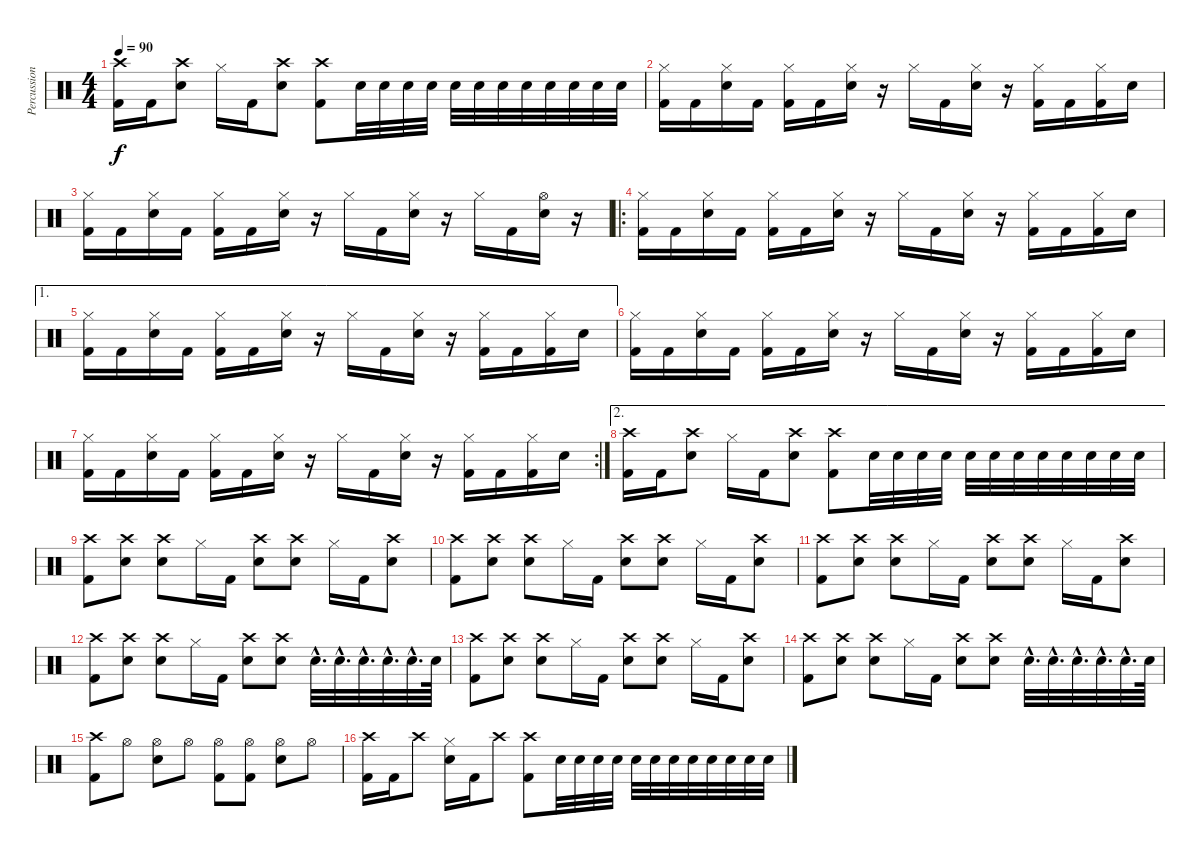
\track ("Percussion" "Percussion") {instrument percussion}
\staff {score}
\articulation defaults
\ts (4 4)
\tempo 90
\clef neutral
\ks c
("Crash high (hit)" "Kick (hit) 2").16{dy f} "Kick (hit) 2".16 ("Crash high (hit)" "Snare (hit) 2").8 "Hi-Hat (closed)".16 "Kick (hit) 2".16 ("Crash high (hit)" "Snare (hit) 2").8 ("Crash high (hit)" "Kick (hit) 2").8 "Snare (hit) 2".32 "Snare (hit) 2".32 "Snare (hit) 2".32 "Snare (hit) 2".32 "Snare (hit) 2".32 "Snare (hit) 2".32 "Snare (hit) 2".32 "Snare (hit) 2".32 "Snare (hit) 2".32 "Snare (hit) 2".32 "Snare (hit) 2".32 "Snare (hit) 2".32 |
("Hi-Hat (closed)" "Kick (hit) 2").16 "Kick (hit) 2".16 ("Hi-Hat (closed)" "Snare (hit) 2").16 "Kick (hit) 2".16 ("Hi-Hat (closed)" "Kick (hit) 2").16 "Kick (hit) 2".16 ("Hi-Hat (closed)" "Snare (hit) 2").16 r.16 "Hi-Hat (closed)".16 "Kick (hit) 2".16 ("Hi-Hat (closed)" "Snare (hit) 2").16 r.16 ("Hi-Hat (closed)" "Kick (hit) 2").16 "Kick (hit) 2".16 ("Hi-Hat (closed)" "Kick (hit) 2").16 "Snare (hit) 2".16 |
("Hi-Hat (closed)" "Kick (hit) 2").16 "Kick (hit) 2".16 ("Hi-Hat (closed)" "Snare (hit) 2").16 "Kick (hit) 2".16 ("Hi-Hat (closed)" "Kick (hit) 2").16 "Kick (hit) 2".16 ("Hi-Hat (closed)" "Snare (hit) 2").16 r.16 "Hi-Hat (closed)".16 "Kick (hit) 2".16 ("Hi-Hat (closed)" "Snare (hit) 2").16 r.16 "Hi-Hat (closed)".16 "Kick (hit) 2".16 ("Hi-Hat (open)" "Snare (hit) 2").16 r.16 |
\ro
("Hi-Hat (closed)" "Kick (hit) 2").16 "Kick (hit) 2".16 ("Hi-Hat (closed)" "Snare (hit) 2").16 "Kick (hit) 2".16 ("Hi-Hat (closed)" "Kick (hit) 2").16 "Kick (hit) 2".16 ("Hi-Hat (closed)" "Snare (hit) 2").16 r.16 "Hi-Hat (closed)".16 "Kick (hit) 2".16 ("Hi-Hat (closed)" "Snare (hit) 2").16 r.16 ("Hi-Hat (closed)" "Kick (hit) 2").16 "Kick (hit) 2".16 ("Hi-Hat (closed)" "Kick (hit) 2").16 "Snare (hit) 2".16 |
\ae 1
("Hi-Hat (closed)" "Kick (hit) 2").16 "Kick (hit) 2".16 ("Hi-Hat (closed)" "Snare (hit) 2").16 "Kick (hit) 2".16 ("Hi-Hat (closed)" "Kick (hit) 2").16 "Kick (hit) 2".16 ("Hi-Hat (closed)" "Snare (hit) 2").16 r.16 "Hi-Hat (closed)".16 "Kick (hit) 2".16 ("Hi-Hat (closed)" "Snare (hit) 2").16 r.16 ("Hi-Hat (closed)" "Kick (hit) 2").16 "Kick (hit) 2".16 ("Hi-Hat (closed)" "Kick (hit) 2").16 "Snare (hit) 2".16 |
("Hi-Hat (closed)" "Kick (hit) 2").16 "Kick (hit) 2".16 ("Hi-Hat (closed)" "Snare (hit) 2").16 "Kick (hit) 2".16 ("Hi-Hat (closed)" "Kick (hit) 2").16 "Kick (hit) 2".16 ("Hi-Hat (closed)" "Snare (hit) 2").16 r.16 "Hi-Hat (closed)".16 "Kick (hit) 2".16 ("Hi-Hat (closed)" "Snare (hit) 2").16 r.16 ("Hi-Hat (closed)" "Kick (hit) 2").16 "Kick (hit) 2".16 ("Hi-Hat (closed)" "Kick (hit) 2").16 "Snare (hit) 2".16 |
\rc 2
("Hi-Hat (closed)" "Kick (hit) 2").16 "Kick (hit) 2".16 ("Hi-Hat (closed)" "Snare (hit) 2").16 "Kick (hit) 2".16 ("Hi-Hat (closed)" "Kick (hit) 2").16 "Kick (hit) 2".16 ("Hi-Hat (closed)" "Snare (hit) 2").16 r.16 "Hi-Hat (closed)".16 "Kick (hit) 2".16 ("Hi-Hat (closed)" "Snare (hit) 2").16 r.16 ("Hi-Hat (closed)" "Kick (hit) 2").16 "Kick (hit) 2".16 ("Hi-Hat (closed)" "Kick (hit) 2").16 "Snare (hit) 2".16 |
\ae 2
("Crash high (hit)" "Kick (hit) 2").16 "Kick (hit) 2".16 ("Crash high (hit)" "Snare (hit) 2").8 "Hi-Hat (closed)".16 "Kick (hit) 2".16 ("Crash high (hit)" "Snare (hit) 2").8 ("Crash high (hit)" "Kick (hit) 2").8 "Snare (hit) 2".32 "Snare (hit) 2".32 "Snare (hit) 2".32 "Snare (hit) 2".32 "Snare (hit) 2".32 "Snare (hit) 2".32 "Snare (hit) 2".32 "Snare (hit) 2".32 "Snare (hit) 2".32 "Snare (hit) 2".32 "Snare (hit) 2".32 "Snare (hit) 2".32 |
("Crash high (hit)" "Kick (hit) 2").8 ("Crash high (hit)" "Snare (hit) 2").8 ("Crash high (hit)" "Snare (hit) 2").8 "Hi-Hat (closed)".16 "Kick (hit) 2".16 ("Crash high (hit)" "Snare (hit) 2").8 ("Crash high (hit)" "Snare (hit) 2").8 "Hi-Hat (closed)".16 "Kick (hit) 2".16 ("Crash high (hit)" "Snare (hit) 2").8 |
("Crash high (hit)" "Kick (hit) 2").8 ("Crash high (hit)" "Snare (hit) 2").8 ("Crash high (hit)" "Snare (hit) 2").8 "Hi-Hat (closed)".16 "Kick (hit) 2".16 ("Crash high (hit)" "Snare (hit) 2").8 ("Crash high (hit)" "Snare (hit) 2").8 "Hi-Hat (closed)".16 "Kick (hit) 2".16 ("Crash high (hit)" "Snare (hit) 2").8 |
("Crash high (hit)" "Kick (hit) 2").8 ("Crash high (hit)" "Snare (hit) 2").8 ("Crash high (hit)" "Snare (hit) 2").8 "Hi-Hat (closed)".16 "Kick (hit) 2".16 ("Crash high (hit)" "Snare (hit) 2").8 ("Crash high (hit)" "Snare (hit) 2").8 "Hi-Hat (closed)".16 "Kick (hit) 2".16 ("Crash high (hit)" "Snare (hit) 2").8 |
("Crash high (hit)" "Kick (hit) 2").8 ("Crash high (hit)" "Snare (hit) 2").8 ("Crash high (hit)" "Snare (hit) 2").8 "Hi-Hat (closed)".16 "Kick (hit) 2".16 ("Crash high (hit)" "Snare (hit) 2").8 ("Crash high (hit)" "Snare (hit) 2").8 "Snare (hit) 2"{hac}.32{d} "Snare (hit) 2"{hac}.32{d} "Snare (hit) 2"{hac}.32{d} "Snare (hit) 2"{hac}.32{d} "Snare (hit) 2"{hac}.32{d} "Snare (hit) 2".64 |
("Crash high (hit)" "Kick (hit) 2").8 ("Crash high (hit)" "Snare (hit) 2").8 ("Crash high (hit)" "Snare (hit) 2").8 "Hi-Hat (closed)".16 "Kick (hit) 2".16 ("Crash high (hit)" "Snare (hit) 2").8 ("Crash high (hit)" "Snare (hit) 2").8 "Hi-Hat (closed)".16 "Kick (hit) 2".16 ("Crash high (hit)" "Snare (hit) 2").8 |
("Crash high (hit)" "Kick (hit) 2").8 ("Crash high (hit)" "Snare (hit) 2").8 ("Crash high (hit)" "Snare (hit) 2").8 "Hi-Hat (closed)".16 "Kick (hit) 2".16 ("Crash high (hit)" "Snare (hit) 2").8 ("Crash high (hit)" "Snare (hit) 2").8 "Snare (hit) 2"{hac}.32{d} "Snare (hit) 2"{hac}.32{d} "Snare (hit) 2"{hac}.32{d} "Snare (hit) 2"{hac}.32{d} "Snare (hit) 2"{hac}.32{d} "Snare (hit) 2".64 |
("Crash high (hit)" "Kick (hit) 2").8 "Hi-Hat (open)".8 ("Hi-Hat (open)" "Snare (hit) 2").8 "Hi-Hat (open)".8 ("Hi-Hat (open)" "Kick (hit) 2").8 ("Hi-Hat (open)" "Kick (hit) 2").8 ("Hi-Hat (open)" "Snare (hit) 2").8 "Hi-Hat (open)".8 |
("Crash high (hit)" "Kick (hit) 2").16 "Kick (hit) 2".16 "Crash high (hit)".8 ("Hi-Hat (closed)" "Snare (hit) 2").16 "Kick (hit) 2".16 "Crash high (hit)".8 ("Crash high (hit)" "Kick (hit) 2").8 "Snare (hit) 2".32 "Snare (hit) 2".32 "Snare (hit) 2".32 "Snare (hit) 2".32 "Snare (hit) 2".32 "Snare (hit) 2".32 "Snare (hit) 2".32 "Snare (hit) 2".32 "Snare (hit) 2".32 "Snare (hit) 2".32 "Snare (hit) 2".32 "Snare (hit) 2".32
